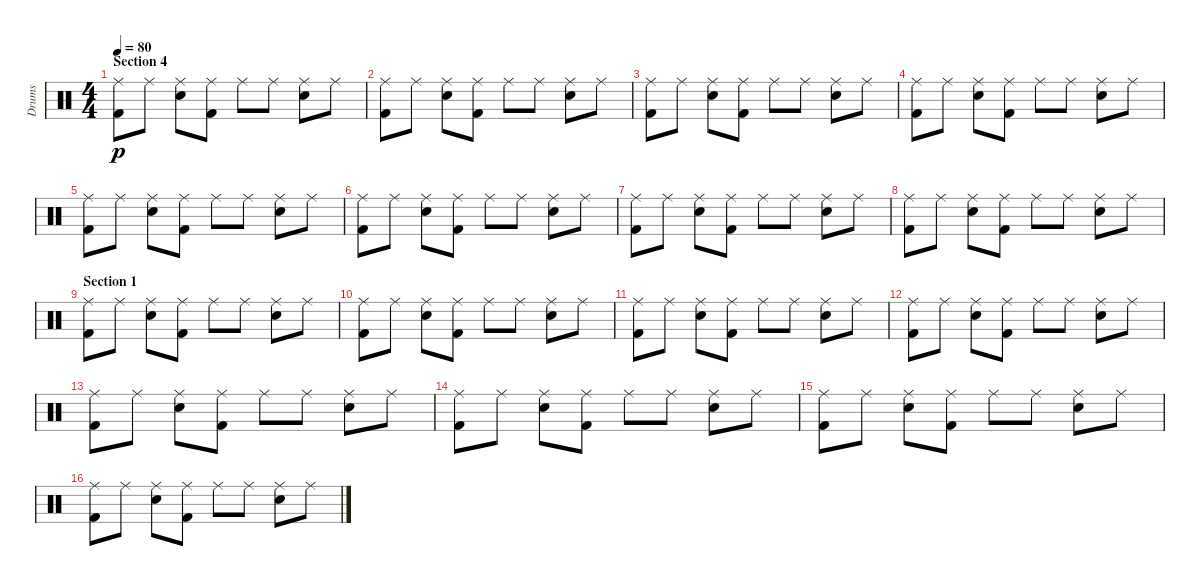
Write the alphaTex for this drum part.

\track ("Drums" "Drums") {instrument percussion}
\staff {score}
\articulation defaults
\ts (4 4)
\section ("" "Section 4")
\tempo 80
\clef neutral
\ks c
("Ride (middle)" "Kick (hit) 2").8{dy p} "Ride (middle)".8 ("Ride (middle)" "Electric Snare (hit)").8 ("Ride (middle)" "Kick (hit) 2").8 "Ride (middle)".8 "Ride (middle)".8 ("Ride (middle)" "Electric Snare (hit)").8 "Ride (middle)".8 |
("Ride (middle)" "Kick (hit) 2").8 "Ride (middle)".8 ("Ride (middle)" "Electric Snare (hit)").8 ("Ride (middle)" "Kick (hit) 2").8 "Ride (middle)".8 "Ride (middle)".8 ("Ride (middle)" "Electric Snare (hit)").8 "Ride (middle)".8 |
("Ride (middle)" "Kick (hit) 2").8 "Ride (middle)".8 ("Ride (middle)" "Electric Snare (hit)").8 ("Ride (middle)" "Kick (hit) 2").8 "Ride (middle)".8 "Ride (middle)".8 ("Ride (middle)" "Electric Snare (hit)").8 "Ride (middle)".8 |
("Ride (middle)" "Kick (hit) 2").8 "Ride (middle)".8 ("Ride (middle)" "Electric Snare (hit)").8 ("Ride (middle)" "Kick (hit) 2").8 "Ride (middle)".8 "Ride (middle)".8 ("Ride (middle)" "Electric Snare (hit)").8 "Ride (middle)".8 |
("Ride (middle)" "Kick (hit) 2").8 "Ride (middle)".8 ("Ride (middle)" "Electric Snare (hit)").8 ("Ride (middle)" "Kick (hit) 2").8 "Ride (middle)".8 "Ride (middle)".8 ("Ride (middle)" "Electric Snare (hit)").8 "Ride (middle)".8 |
("Ride (middle)" "Kick (hit) 2").8 "Ride (middle)".8 ("Ride (middle)" "Electric Snare (hit)").8 ("Ride (middle)" "Kick (hit) 2").8 "Ride (middle)".8 "Ride (middle)".8 ("Ride (middle)" "Electric Snare (hit)").8 "Ride (middle)".8 |
("Ride (middle)" "Kick (hit) 2").8 "Ride (middle)".8 ("Ride (middle)" "Electric Snare (hit)").8 ("Ride (middle)" "Kick (hit) 2").8 "Ride (middle)".8 "Ride (middle)".8 ("Ride (middle)" "Electric Snare (hit)").8 "Ride (middle)".8 |
("Ride (middle)" "Kick (hit) 2").8 "Ride (middle)".8 ("Ride (middle)" "Electric Snare (hit)").8 ("Ride (middle)" "Kick (hit) 2").8 "Ride (middle)".8 "Ride (middle)".8 ("Ride (middle)" "Electric Snare (hit)").8 "Ride (middle)".8 |
\section ("" "Section 1")
("Ride (middle)" "Kick (hit) 2").8 "Ride (middle)".8 ("Ride (middle)" "Electric Snare (hit)").8 ("Ride (middle)" "Kick (hit) 2").8 "Ride (middle)".8 "Ride (middle)".8 ("Ride (middle)" "Electric Snare (hit)").8 "Ride (middle)".8 |
("Ride (middle)" "Kick (hit) 2").8 "Ride (middle)".8 ("Ride (middle)" "Electric Snare (hit)").8 ("Ride (middle)" "Kick (hit) 2").8 "Ride (middle)".8 "Ride (middle)".8 ("Ride (middle)" "Electric Snare (hit)").8 "Ride (middle)".8 |
("Ride (middle)" "Kick (hit) 2").8 "Ride (middle)".8 ("Ride (middle)" "Electric Snare (hit)").8 ("Ride (middle)" "Kick (hit) 2").8 "Ride (middle)".8 "Ride (middle)".8 ("Ride (middle)" "Electric Snare (hit)").8 "Ride (middle)".8 |
("Ride (middle)" "Kick (hit) 2").8 "Ride (middle)".8 ("Ride (middle)" "Electric Snare (hit)").8 ("Ride (middle)" "Kick (hit) 2").8 "Ride (middle)".8 "Ride (middle)".8 ("Ride (middle)" "Electric Snare (hit)").8 "Ride (middle)".8 |
("Ride (middle)" "Kick (hit) 2").8 "Ride (middle)".8 ("Ride (middle)" "Electric Snare (hit)").8 ("Ride (middle)" "Kick (hit) 2").8 "Ride (middle)".8 "Ride (middle)".8 ("Ride (middle)" "Electric Snare (hit)").8 "Ride (middle)".8 |
("Ride (middle)" "Kick (hit) 2").8 "Ride (middle)".8 ("Ride (middle)" "Electric Snare (hit)").8 ("Ride (middle)" "Kick (hit) 2").8 "Ride (middle)".8 "Ride (middle)".8 ("Ride (middle)" "Electric Snare (hit)").8 "Ride (middle)".8 |
("Ride (middle)" "Kick (hit) 2").8 "Ride (middle)".8 ("Ride (middle)" "Electric Snare (hit)").8 ("Ride (middle)" "Kick (hit) 2").8 "Ride (middle)".8 "Ride (middle)".8 ("Ride (middle)" "Electric Snare (hit)").8 "Ride (middle)".8 |
("Ride (middle)" "Kick (hit) 2").8 "Ride (middle)".8 ("Ride (middle)" "Electric Snare (hit)").8 ("Ride (middle)" "Kick (hit) 2").8 "Ride (middle)".8 "Ride (middle)".8 ("Ride (middle)" "Electric Snare (hit)").8 "Ride (middle)".8
